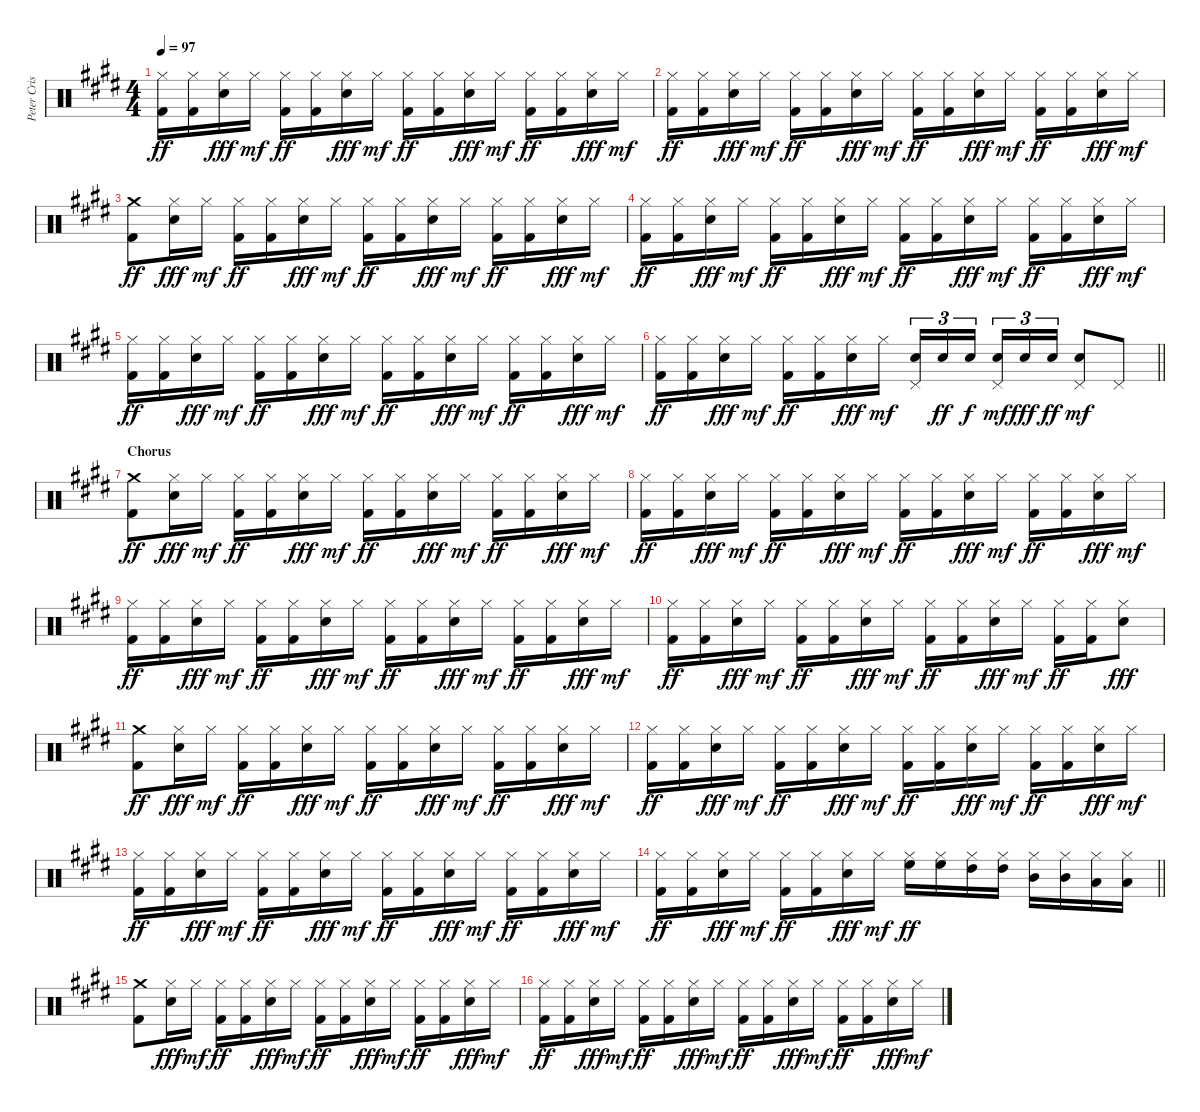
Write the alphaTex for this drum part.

\track ("Peter Criss" "Peter Cris") {instrument percussion}
\staff {score}
\articulation defaults
\ts (4 4)
\tempo 97
\clef neutral
\ks c#minor
("Hi-Hat (closed)" "Kick (hit) 2").16{dy ff} ("Hi-Hat (closed)" "Kick (hit) 2").16 ("Hi-Hat (closed)" "Snare (hit) 2").16{dy fff} "Hi-Hat (closed)".16{dy mf} ("Hi-Hat (closed)" "Kick (hit) 2").16{dy ff} ("Hi-Hat (closed)" "Kick (hit) 2").16 ("Hi-Hat (closed)" "Snare (hit) 2").16{dy fff} "Hi-Hat (closed)".16{dy mf} ("Hi-Hat (closed)" "Kick (hit) 2").16{dy ff} ("Hi-Hat (closed)" "Kick (hit) 2").16 ("Hi-Hat (closed)" "Snare (hit) 2").16{dy fff} "Hi-Hat (closed)".16{dy mf} ("Hi-Hat (closed)" "Kick (hit) 2").16{dy ff} ("Hi-Hat (closed)" "Kick (hit) 2").16 ("Hi-Hat (closed)" "Snare (hit) 2").16{dy fff} "Hi-Hat (closed)".16{dy mf} |
("Hi-Hat (closed)" "Kick (hit) 2").16{dy ff} ("Hi-Hat (closed)" "Kick (hit) 2").16 ("Hi-Hat (closed)" "Snare (hit) 2").16{dy fff} "Hi-Hat (closed)".16{dy mf} ("Hi-Hat (closed)" "Kick (hit) 2").16{dy ff} ("Hi-Hat (closed)" "Kick (hit) 2").16 ("Hi-Hat (closed)" "Snare (hit) 2").16{dy fff} "Hi-Hat (closed)".16{dy mf} ("Hi-Hat (closed)" "Kick (hit) 2").16{dy ff} ("Hi-Hat (closed)" "Kick (hit) 2").16 ("Hi-Hat (closed)" "Snare (hit) 2").16{dy fff} "Hi-Hat (closed)".16{dy mf} ("Hi-Hat (closed)" "Kick (hit) 2").16{dy ff} ("Hi-Hat (closed)" "Kick (hit) 2").16 ("Hi-Hat (closed)" "Snare (hit) 2").16{dy fff} "Hi-Hat (closed)".16{dy mf} |
("Crash medium (hit)" "Kick (hit) 2").8{dy ff} ("Hi-Hat (closed)" "Snare (hit) 2").16{dy fff} "Hi-Hat (closed)".16{dy mf} ("Hi-Hat (closed)" "Kick (hit) 2").16{dy ff} ("Hi-Hat (closed)" "Kick (hit) 2").16 ("Hi-Hat (closed)" "Snare (hit) 2").16{dy fff} "Hi-Hat (closed)".16{dy mf} ("Hi-Hat (closed)" "Kick (hit) 2").16{dy ff} ("Hi-Hat (closed)" "Kick (hit) 2").16 ("Hi-Hat (closed)" "Snare (hit) 2").16{dy fff} "Hi-Hat (closed)".16{dy mf} ("Hi-Hat (closed)" "Kick (hit) 2").16{dy ff} ("Hi-Hat (closed)" "Kick (hit) 2").16 ("Hi-Hat (closed)" "Snare (hit) 2").16{dy fff} "Hi-Hat (closed)".16{dy mf} |
("Hi-Hat (closed)" "Kick (hit) 2").16{dy ff} ("Hi-Hat (closed)" "Kick (hit) 2").16 ("Hi-Hat (closed)" "Snare (hit) 2").16{dy fff} "Hi-Hat (closed)".16{dy mf} ("Hi-Hat (closed)" "Kick (hit) 2").16{dy ff} ("Hi-Hat (closed)" "Kick (hit) 2").16 ("Hi-Hat (closed)" "Snare (hit) 2").16{dy fff} "Hi-Hat (closed)".16{dy mf} ("Hi-Hat (closed)" "Kick (hit) 2").16{dy ff} ("Hi-Hat (closed)" "Kick (hit) 2").16 ("Hi-Hat (closed)" "Snare (hit) 2").16{dy fff} "Hi-Hat (closed)".16{dy mf} ("Hi-Hat (closed)" "Kick (hit) 2").16{dy ff} ("Hi-Hat (closed)" "Kick (hit) 2").16 ("Hi-Hat (closed)" "Snare (hit) 2").16{dy fff} "Hi-Hat (closed)".16{dy mf} |
("Hi-Hat (closed)" "Kick (hit) 2").16{dy ff} ("Hi-Hat (closed)" "Kick (hit) 2").16 ("Hi-Hat (closed)" "Snare (hit) 2").16{dy fff} "Hi-Hat (closed)".16{dy mf} ("Hi-Hat (closed)" "Kick (hit) 2").16{dy ff} ("Hi-Hat (closed)" "Kick (hit) 2").16 ("Hi-Hat (closed)" "Snare (hit) 2").16{dy fff} "Hi-Hat (closed)".16{dy mf} ("Hi-Hat (closed)" "Kick (hit) 2").16{dy ff} ("Hi-Hat (closed)" "Kick (hit) 2").16 ("Hi-Hat (closed)" "Snare (hit) 2").16{dy fff} "Hi-Hat (closed)".16{dy mf} ("Hi-Hat (closed)" "Kick (hit) 2").16{dy ff} ("Hi-Hat (closed)" "Kick (hit) 2").16 ("Hi-Hat (closed)" "Snare (hit) 2").16{dy fff} "Hi-Hat (closed)".16{dy mf} |
\barLineRight lightlight
("Hi-Hat (closed)" "Kick (hit) 2").16{dy ff} ("Hi-Hat (closed)" "Kick (hit) 2").16 ("Hi-Hat (closed)" "Snare (hit) 2").16{dy fff} "Hi-Hat (closed)".16{dy mf} ("Hi-Hat (closed)" "Kick (hit) 2").16{dy ff} ("Hi-Hat (closed)" "Kick (hit) 2").16 ("Hi-Hat (closed)" "Snare (hit) 2").16{dy fff} "Hi-Hat (closed)".16{dy mf} ("Snare (hit) 2" "Pedal Hi-Hat (hit)").16{tu (3 2)} "Snare (hit) 2".16{tu (3 2) dy ff} "Snare (hit) 2".16{tu (3 2) dy f beam splitsecondary} ("Snare (hit) 2" "Pedal Hi-Hat (hit)").16{tu (3 2) dy mf} "Snare (hit) 2".16{tu (3 2) dy fff} "Snare (hit) 2".16{tu (3 2) dy ff} ("Snare (hit) 2" "Pedal Hi-Hat (hit)").8{dy mf} "Pedal Hi-Hat (hit)".8 |
\section ("" "Chorus")
("Crash medium (hit)" "Kick (hit) 2").8{dy ff} ("Hi-Hat (closed)" "Snare (hit) 2").16{dy fff} "Hi-Hat (closed)".16{dy mf} ("Hi-Hat (closed)" "Kick (hit) 2").16{dy ff} ("Hi-Hat (closed)" "Kick (hit) 2").16 ("Hi-Hat (closed)" "Snare (hit) 2").16{dy fff} "Hi-Hat (closed)".16{dy mf} ("Hi-Hat (closed)" "Kick (hit) 2").16{dy ff} ("Hi-Hat (closed)" "Kick (hit) 2").16 ("Hi-Hat (closed)" "Snare (hit) 2").16{dy fff} "Hi-Hat (closed)".16{dy mf} ("Hi-Hat (closed)" "Kick (hit) 2").16{dy ff} ("Hi-Hat (closed)" "Kick (hit) 2").16 ("Hi-Hat (closed)" "Snare (hit) 2").16{dy fff} "Hi-Hat (closed)".16{dy mf} |
("Hi-Hat (closed)" "Kick (hit) 2").16{dy ff} ("Hi-Hat (closed)" "Kick (hit) 2").16 ("Hi-Hat (closed)" "Snare (hit) 2").16{dy fff} "Hi-Hat (closed)".16{dy mf} ("Hi-Hat (closed)" "Kick (hit) 2").16{dy ff} ("Hi-Hat (closed)" "Kick (hit) 2").16 ("Hi-Hat (closed)" "Snare (hit) 2").16{dy fff} "Hi-Hat (closed)".16{dy mf} ("Hi-Hat (closed)" "Kick (hit) 2").16{dy ff} ("Hi-Hat (closed)" "Kick (hit) 2").16 ("Hi-Hat (closed)" "Snare (hit) 2").16{dy fff} "Hi-Hat (closed)".16{dy mf} ("Hi-Hat (closed)" "Kick (hit) 2").16{dy ff} ("Hi-Hat (closed)" "Kick (hit) 2").16 ("Hi-Hat (closed)" "Snare (hit) 2").16{dy fff} "Hi-Hat (closed)".16{dy mf} |
("Hi-Hat (closed)" "Kick (hit) 2").16{dy ff} ("Hi-Hat (closed)" "Kick (hit) 2").16 ("Hi-Hat (closed)" "Snare (hit) 2").16{dy fff} "Hi-Hat (closed)".16{dy mf} ("Hi-Hat (closed)" "Kick (hit) 2").16{dy ff} ("Hi-Hat (closed)" "Kick (hit) 2").16 ("Hi-Hat (closed)" "Snare (hit) 2").16{dy fff} "Hi-Hat (closed)".16{dy mf} ("Hi-Hat (closed)" "Kick (hit) 2").16{dy ff} ("Hi-Hat (closed)" "Kick (hit) 2").16 ("Hi-Hat (closed)" "Snare (hit) 2").16{dy fff} "Hi-Hat (closed)".16{dy mf} ("Hi-Hat (closed)" "Kick (hit) 2").16{dy ff} ("Hi-Hat (closed)" "Kick (hit) 2").16 ("Hi-Hat (closed)" "Snare (hit) 2").16{dy fff} "Hi-Hat (closed)".16{dy mf} |
("Hi-Hat (closed)" "Kick (hit) 2").16{dy ff} ("Hi-Hat (closed)" "Kick (hit) 2").16 ("Hi-Hat (closed)" "Snare (hit) 2").16{dy fff} "Hi-Hat (closed)".16{dy mf} ("Hi-Hat (closed)" "Kick (hit) 2").16{dy ff} ("Hi-Hat (closed)" "Kick (hit) 2").16 ("Hi-Hat (closed)" "Snare (hit) 2").16{dy fff} "Hi-Hat (closed)".16{dy mf} ("Hi-Hat (closed)" "Kick (hit) 2").16{dy ff} ("Hi-Hat (closed)" "Kick (hit) 2").16 ("Hi-Hat (closed)" "Snare (hit) 2").16{dy fff} "Hi-Hat (closed)".16{dy mf} ("Hi-Hat (closed)" "Kick (hit) 2").16{dy ff} ("Hi-Hat (closed)" "Kick (hit) 2").16 ("Hi-Hat (closed)" "Snare (hit) 2").8{dy fff} |
("Crash medium (hit)" "Kick (hit) 2").8{dy ff} ("Hi-Hat (closed)" "Snare (hit) 2").16{dy fff} "Hi-Hat (closed)".16{dy mf} ("Hi-Hat (closed)" "Kick (hit) 2").16{dy ff} ("Hi-Hat (closed)" "Kick (hit) 2").16 ("Hi-Hat (closed)" "Snare (hit) 2").16{dy fff} "Hi-Hat (closed)".16{dy mf} ("Hi-Hat (closed)" "Kick (hit) 2").16{dy ff} ("Hi-Hat (closed)" "Kick (hit) 2").16 ("Hi-Hat (closed)" "Snare (hit) 2").16{dy fff} "Hi-Hat (closed)".16{dy mf} ("Hi-Hat (closed)" "Kick (hit) 2").16{dy ff} ("Hi-Hat (closed)" "Kick (hit) 2").16 ("Hi-Hat (closed)" "Snare (hit) 2").16{dy fff} "Hi-Hat (closed)".16{dy mf} |
("Hi-Hat (closed)" "Kick (hit) 2").16{dy ff} ("Hi-Hat (closed)" "Kick (hit) 2").16 ("Hi-Hat (closed)" "Snare (hit) 2").16{dy fff} "Hi-Hat (closed)".16{dy mf} ("Hi-Hat (closed)" "Kick (hit) 2").16{dy ff} ("Hi-Hat (closed)" "Kick (hit) 2").16 ("Hi-Hat (closed)" "Snare (hit) 2").16{dy fff} "Hi-Hat (closed)".16{dy mf} ("Hi-Hat (closed)" "Kick (hit) 2").16{dy ff} ("Hi-Hat (closed)" "Kick (hit) 2").16 ("Hi-Hat (closed)" "Snare (hit) 2").16{dy fff} "Hi-Hat (closed)".16{dy mf} ("Hi-Hat (closed)" "Kick (hit) 2").16{dy ff} ("Hi-Hat (closed)" "Kick (hit) 2").16 ("Hi-Hat (closed)" "Snare (hit) 2").16{dy fff} "Hi-Hat (closed)".16{dy mf} |
("Hi-Hat (closed)" "Kick (hit) 2").16{dy ff} ("Hi-Hat (closed)" "Kick (hit) 2").16 ("Hi-Hat (closed)" "Snare (hit) 2").16{dy fff} "Hi-Hat (closed)".16{dy mf} ("Hi-Hat (closed)" "Kick (hit) 2").16{dy ff} ("Hi-Hat (closed)" "Kick (hit) 2").16 ("Hi-Hat (closed)" "Snare (hit) 2").16{dy fff} "Hi-Hat (closed)".16{dy mf} ("Hi-Hat (closed)" "Kick (hit) 2").16{dy ff} ("Hi-Hat (closed)" "Kick (hit) 2").16 ("Hi-Hat (closed)" "Snare (hit) 2").16{dy fff} "Hi-Hat (closed)".16{dy mf} ("Hi-Hat (closed)" "Kick (hit) 2").16{dy ff} ("Hi-Hat (closed)" "Kick (hit) 2").16 ("Hi-Hat (closed)" "Snare (hit) 2").16{dy fff} "Hi-Hat (closed)".16{dy mf} |
\barLineRight lightlight
("Hi-Hat (closed)" "Kick (hit) 2").16{dy ff} ("Hi-Hat (closed)" "Kick (hit) 2").16 ("Hi-Hat (closed)" "Snare (hit) 2").16{dy fff} "Hi-Hat (closed)".16{dy mf} ("Hi-Hat (closed)" "Kick (hit) 2").16{dy ff} ("Hi-Hat (closed)" "Kick (hit) 2").16 ("Hi-Hat (closed)" "Snare (hit) 2").16{dy fff} "Hi-Hat (closed)".16{dy mf} ("Hi-Hat (closed)" "High Floor Tom (hit)").16{dy ff} ("Hi-Hat (closed)" "High Floor Tom (hit)").16 ("Hi-Hat (closed)" "High Tom (hit)").16 ("Hi-Hat (closed)" "High Tom (hit)").16 ("Hi-Hat (closed)" "Mid Tom (hit)").16 ("Hi-Hat (closed)" "Mid Tom (hit)").16 ("Hi-Hat (closed)" "Low Tom (hit)").16 ("Hi-Hat (closed)" "Low Tom (hit)").16 |
\section ("" "")
("Crash medium (hit)" "Kick (hit) 2").8 ("Hi-Hat (closed)" "Snare (hit) 2").16{dy fff} "Hi-Hat (closed)".16{dy mf} ("Hi-Hat (closed)" "Kick (hit) 2").16{dy ff} ("Hi-Hat (closed)" "Kick (hit) 2").16 ("Hi-Hat (closed)" "Snare (hit) 2").16{dy fff} "Hi-Hat (closed)".16{dy mf} ("Hi-Hat (closed)" "Kick (hit) 2").16{dy ff} ("Hi-Hat (closed)" "Kick (hit) 2").16 ("Hi-Hat (closed)" "Snare (hit) 2").16{dy fff} "Hi-Hat (closed)".16{dy mf} ("Hi-Hat (closed)" "Kick (hit) 2").16{dy ff} ("Hi-Hat (closed)" "Kick (hit) 2").16 ("Hi-Hat (closed)" "Snare (hit) 2").16{dy fff} "Hi-Hat (closed)".16{dy mf} |
("Hi-Hat (closed)" "Kick (hit) 2").16{dy ff} ("Hi-Hat (closed)" "Kick (hit) 2").16 ("Hi-Hat (closed)" "Snare (hit) 2").16{dy fff} "Hi-Hat (closed)".16{dy mf} ("Hi-Hat (closed)" "Kick (hit) 2").16{dy ff} ("Hi-Hat (closed)" "Kick (hit) 2").16 ("Hi-Hat (closed)" "Snare (hit) 2").16{dy fff} "Hi-Hat (closed)".16{dy mf} ("Hi-Hat (closed)" "Kick (hit) 2").16{dy ff} ("Hi-Hat (closed)" "Kick (hit) 2").16 ("Hi-Hat (closed)" "Snare (hit) 2").16{dy fff} "Hi-Hat (closed)".16{dy mf} ("Hi-Hat (closed)" "Kick (hit) 2").16{dy ff} ("Hi-Hat (closed)" "Kick (hit) 2").16 ("Hi-Hat (closed)" "Snare (hit) 2").16{dy fff} "Hi-Hat (closed)".16{dy mf}
